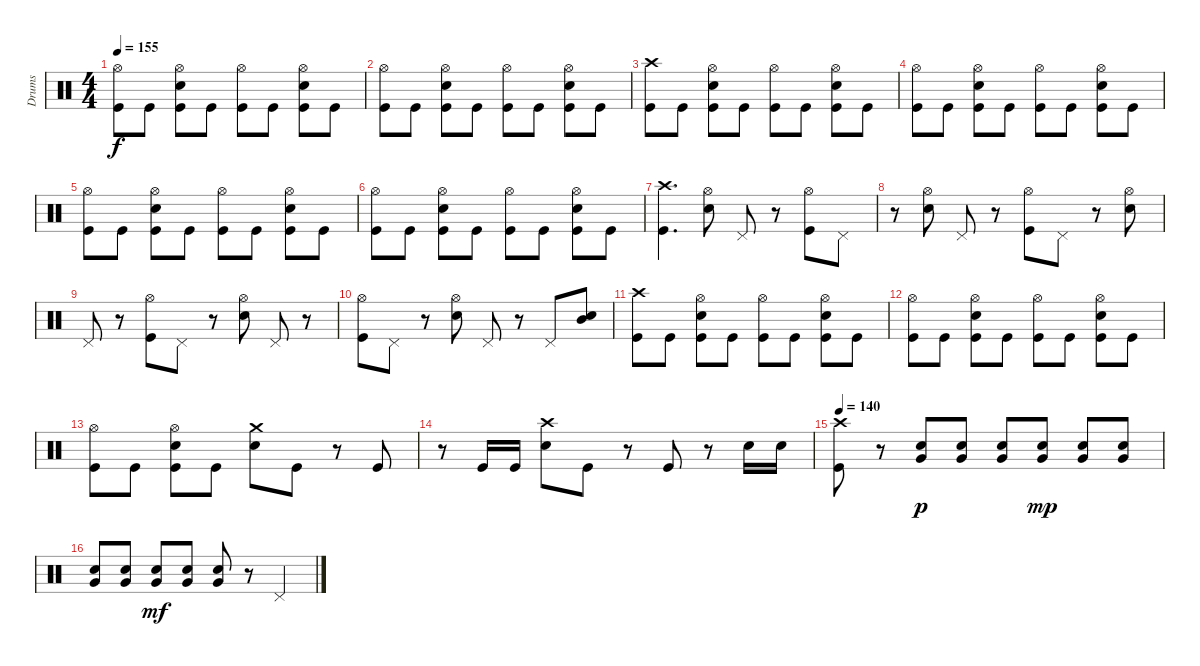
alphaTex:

\track ("Drums" "Drums") {instrument percussion}
\staff {score}
\articulation defaults
\ts (4 4)
\tempo 155
\clef neutral
\ks c
("Hi-Hat (open)" "Kick (hit)").8{dy f} "Kick (hit)".8 ("Hi-Hat (open)" "Electric Snare (hit)" "Kick (hit)").8 "Kick (hit)".8 ("Hi-Hat (open)" "Kick (hit)").8 "Kick (hit)".8 ("Hi-Hat (open)" "Electric Snare (hit)" "Kick (hit)").8 "Kick (hit)".8 |
("Hi-Hat (open)" "Kick (hit)").8 "Kick (hit)".8 ("Hi-Hat (open)" "Electric Snare (hit)" "Kick (hit)").8 "Kick (hit)".8 ("Hi-Hat (open)" "Kick (hit)").8 "Kick (hit)".8 ("Hi-Hat (open)" "Electric Snare (hit)" "Kick (hit)").8 "Kick (hit)".8 |
("Crash high (hit)" "Kick (hit)").8 "Kick (hit)".8 ("Hi-Hat (open)" "Electric Snare (hit)" "Kick (hit)").8 "Kick (hit)".8 ("Hi-Hat (open)" "Kick (hit)").8 "Kick (hit)".8 ("Hi-Hat (open)" "Electric Snare (hit)" "Kick (hit)").8 "Kick (hit)".8 |
("Hi-Hat (open)" "Kick (hit)").8 "Kick (hit)".8 ("Hi-Hat (open)" "Electric Snare (hit)" "Kick (hit)").8 "Kick (hit)".8 ("Hi-Hat (open)" "Kick (hit)").8 "Kick (hit)".8 ("Hi-Hat (open)" "Electric Snare (hit)" "Kick (hit)").8 "Kick (hit)".8 |
("Hi-Hat (open)" "Kick (hit)").8 "Kick (hit)".8 ("Hi-Hat (open)" "Electric Snare (hit)" "Kick (hit)").8 "Kick (hit)".8 ("Hi-Hat (open)" "Kick (hit)").8 "Kick (hit)".8 ("Hi-Hat (open)" "Electric Snare (hit)" "Kick (hit)").8 "Kick (hit)".8 |
("Hi-Hat (open)" "Kick (hit)").8 "Kick (hit)".8 ("Hi-Hat (open)" "Electric Snare (hit)" "Kick (hit)").8 "Kick (hit)".8 ("Hi-Hat (open)" "Kick (hit)").8 "Kick (hit)".8 ("Hi-Hat (open)" "Electric Snare (hit)" "Kick (hit)").8 "Kick (hit)".8 |
("Crash high (hit)" "Kick (hit)").4{d} ("Hi-Hat (open)" "Electric Snare (hit)").8 "Pedal Hi-Hat (hit)".8 r.8 ("Hi-Hat (open)" "Kick (hit)").8 "Pedal Hi-Hat (hit)".8 |
r.8 ("Hi-Hat (open)" "Electric Snare (hit)").8 "Pedal Hi-Hat (hit)".8 r.8 ("Hi-Hat (open)" "Kick (hit)").8 "Pedal Hi-Hat (hit)".8 r.8 ("Hi-Hat (open)" "Electric Snare (hit)").8 |
"Pedal Hi-Hat (hit)".8 r.8 ("Hi-Hat (open)" "Kick (hit)").8 "Pedal Hi-Hat (hit)".8 r.8 ("Hi-Hat (open)" "Electric Snare (hit)").8 "Pedal Hi-Hat (hit)".8 r.8 |
("Hi-Hat (open)" "Kick (hit)").8 "Pedal Hi-Hat (hit)".8 r.8 ("Hi-Hat (open)" "Electric Snare (hit)").8 "Pedal Hi-Hat (hit)".8 r.8 "Pedal Hi-Hat (hit)".8 ("Mid Tom (hit)" "Electric Snare (hit)").8 |
("Crash high (hit)" "Kick (hit)").8 "Kick (hit)".8 ("Hi-Hat (open)" "Electric Snare (hit)" "Kick (hit)").8 "Kick (hit)".8 ("Hi-Hat (open)" "Kick (hit)").8 "Kick (hit)".8 ("Hi-Hat (open)" "Electric Snare (hit)" "Kick (hit)").8 "Kick (hit)".8 |
("Hi-Hat (open)" "Kick (hit)").8 "Kick (hit)".8 ("Hi-Hat (open)" "Electric Snare (hit)" "Kick (hit)").8 "Kick (hit)".8 ("Hi-Hat (open)" "Kick (hit)").8 "Kick (hit)".8 ("Hi-Hat (open)" "Electric Snare (hit)" "Kick (hit)").8 "Kick (hit)".8 |
("Hi-Hat (open)" "Kick (hit)").8 "Kick (hit)".8 ("Hi-Hat (open)" "Electric Snare (hit)" "Kick (hit)").8 "Kick (hit)".8 ("Crash medium (hit)" "Electric Snare (hit)").8 "Kick (hit)".8 r.8 "Kick (hit)".8 |
r.8 "Kick (hit)".16 "Kick (hit)".16 ("Crash high (hit)" "Electric Snare (hit)").8 "Kick (hit)".8 r.8 "Kick (hit)".8 r.8 "Electric Snare (hit)".16 "Electric Snare (hit)".16 |
\tempo 140
("Crash high (hit)" "Kick (hit)").8 r.8 ("Electric Snare (hit)" "Very Low Tom (hit)").8{dy p} ("Electric Snare (hit)" "Very Low Tom (hit)").8 ("Electric Snare (hit)" "Very Low Tom (hit)").8 ("Electric Snare (hit)" "Very Low Tom (hit)").8{dy mp} ("Electric Snare (hit)" "Very Low Tom (hit)").8 ("Electric Snare (hit)" "Very Low Tom (hit)").8 |
("Electric Snare (hit)" "Very Low Tom (hit)").8 ("Electric Snare (hit)" "Very Low Tom (hit)").8 ("Electric Snare (hit)" "Very Low Tom (hit)").8{dy mf} ("Electric Snare (hit)" "Very Low Tom (hit)").8 ("Electric Snare (hit)" "Very Low Tom (hit)").8 r.8 "Pedal Hi-Hat (hit)".4
